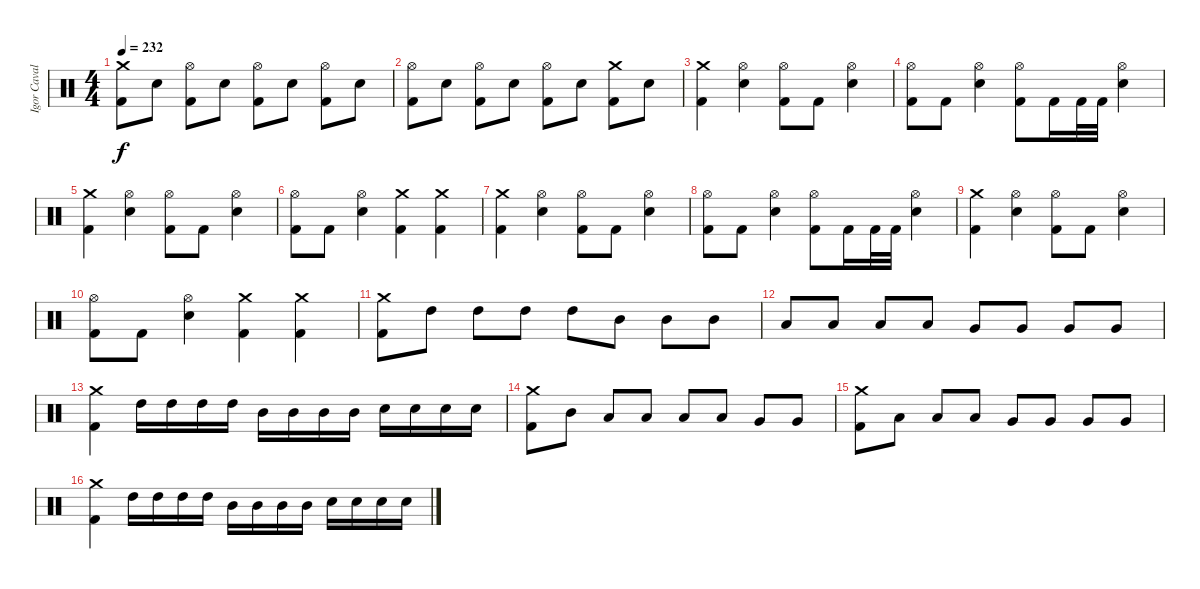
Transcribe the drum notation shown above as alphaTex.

\track ("Igor Cavalera" "Igor Caval") {instrument percussion}
\staff {score}
\articulation defaults
\ts (4 4)
\tempo 232
\clef neutral
\ks c
("Crash medium (hit)" "Kick (hit) 2").8{dy f} "Electric Snare (hit)".8 ("Hi-Hat (open)" "Kick (hit) 2").8 "Electric Snare (hit)".8 ("Hi-Hat (open)" "Kick (hit) 2").8 "Electric Snare (hit)".8 ("Hi-Hat (open)" "Kick (hit) 2").8 "Electric Snare (hit)".8 |
("Hi-Hat (open)" "Kick (hit) 2").8 "Electric Snare (hit)".8 ("Hi-Hat (open)" "Kick (hit) 2").8 "Electric Snare (hit)".8 ("Hi-Hat (open)" "Kick (hit) 2").8 "Electric Snare (hit)".8 ("Crash medium (hit)" "Kick (hit) 2").8 "Electric Snare (hit)".8 |
("Kick (hit) 2" "Crash medium (hit)").4 ("Hi-Hat (open)" "Electric Snare (hit)").4 ("Hi-Hat (open)" "Kick (hit) 2").8 "Kick (hit) 2".8 ("Hi-Hat (open)" "Electric Snare (hit)").4 |
("Hi-Hat (open)" "Kick (hit) 2").8 "Kick (hit) 2".8 ("Hi-Hat (open)" "Electric Snare (hit)").4 ("Hi-Hat (open)" "Kick (hit) 2").8 "Kick (hit) 2".16 "Kick (hit) 2".32 "Kick (hit) 2".32 ("Hi-Hat (open)" "Electric Snare (hit)").4 |
("Kick (hit) 2" "Crash medium (hit)").4 ("Hi-Hat (open)" "Electric Snare (hit)").4 ("Hi-Hat (open)" "Kick (hit) 2").8 "Kick (hit) 2".8 ("Hi-Hat (open)" "Electric Snare (hit)").4 |
("Hi-Hat (open)" "Kick (hit) 2").8 "Kick (hit) 2".8 ("Hi-Hat (open)" "Electric Snare (hit)").4 ("Kick (hit) 2" "Crash medium (hit)").4 ("Kick (hit) 2" "Crash medium (hit)").4 |
("Kick (hit) 2" "Crash medium (hit)").4 ("Hi-Hat (open)" "Electric Snare (hit)").4 ("Hi-Hat (open)" "Kick (hit) 2").8 "Kick (hit) 2".8 ("Hi-Hat (open)" "Electric Snare (hit)").4 |
("Hi-Hat (open)" "Kick (hit) 2").8 "Kick (hit) 2".8 ("Hi-Hat (open)" "Electric Snare (hit)").4 ("Hi-Hat (open)" "Kick (hit) 2").8 "Kick (hit) 2".16 "Kick (hit) 2".32 "Kick (hit) 2".32 ("Hi-Hat (open)" "Electric Snare (hit)").4 |
("Kick (hit) 2" "Crash medium (hit)").4 ("Hi-Hat (open)" "Electric Snare (hit)").4 ("Hi-Hat (open)" "Kick (hit) 2").8 "Kick (hit) 2".8 ("Hi-Hat (open)" "Electric Snare (hit)").4 |
("Hi-Hat (open)" "Kick (hit) 2").8 "Kick (hit) 2".8 ("Hi-Hat (open)" "Electric Snare (hit)").4 ("Kick (hit) 2" "Crash medium (hit)").4 ("Kick (hit) 2" "Crash medium (hit)").4 |
("Kick (hit) 2" "Crash medium (hit)").8 "High Tom (hit)".8 "High Tom (hit)".8 "High Tom (hit)".8 "High Tom (hit)".8 "Mid Tom (hit)".8 "Mid Tom (hit)".8 "Mid Tom (hit)".8 |
"Low Tom (hit)".8 "Low Tom (hit)".8 "Low Tom (hit)".8 "Low Tom (hit)".8 "Very Low Tom (hit)".8 "Very Low Tom (hit)".8 "Very Low Tom (hit)".8 "Very Low Tom (hit)".8 |
("Crash medium (hit)" "Kick (hit) 2").4 "High Tom (hit)".16 "High Tom (hit)".16 "High Tom (hit)".16 "High Tom (hit)".16 "Mid Tom (hit)".16 "Mid Tom (hit)".16 "Mid Tom (hit)".16 "Mid Tom (hit)".16 "Electric Snare (hit)".16 "Electric Snare (hit)".16 "Electric Snare (hit)".16 "Electric Snare (hit)".16 |
("Crash medium (hit)" "Kick (hit) 2").8 "Mid Tom (hit)".8 "Low Tom (hit)".8 "Low Tom (hit)".8 "Low Tom (hit)".8 "Low Tom (hit)".8 "Very Low Tom (hit)".8 "Very Low Tom (hit)".8 |
("Crash medium (hit)" "Kick (hit) 2").8 "Low Tom (hit)".8 "Low Tom (hit)".8 "Low Tom (hit)".8 "Very Low Tom (hit)".8 "Very Low Tom (hit)".8 "Very Low Tom (hit)".8 "Very Low Tom (hit)".8 |
("Crash medium (hit)" "Kick (hit) 2").4 "High Tom (hit)".16 "High Tom (hit)".16 "High Tom (hit)".16 "High Tom (hit)".16 "Mid Tom (hit)".16 "Mid Tom (hit)".16 "Mid Tom (hit)".16 "Mid Tom (hit)".16 "Electric Snare (hit)".16 "Electric Snare (hit)".16 "Electric Snare (hit)".16 "Electric Snare (hit)".16
